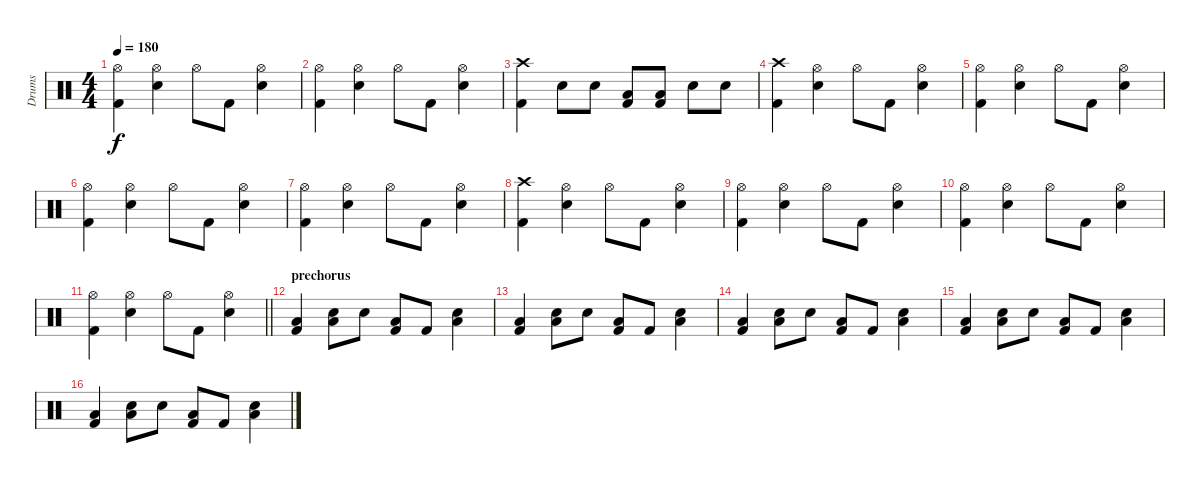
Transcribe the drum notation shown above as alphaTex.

\track ("Drums" "Drums") {instrument percussion}
\staff {score}
\articulation defaults
\ts (4 4)
\tempo 180
\clef neutral
\ks c
("Hi-Hat (open)" "Kick (hit) 2").4{dy f} ("Hi-Hat (open)" "Electric Snare (hit)").4 "Hi-Hat (open)".8 "Kick (hit) 2".8 ("Hi-Hat (open)" "Electric Snare (hit)").4 |
("Hi-Hat (open)" "Kick (hit) 2").4 ("Hi-Hat (open)" "Electric Snare (hit)").4 "Hi-Hat (open)".8 "Kick (hit) 2".8 ("Hi-Hat (open)" "Electric Snare (hit)").4 |
("Crash high (hit)" "Kick (hit) 2").4 "Electric Snare (hit)".8 "Electric Snare (hit)".8 ("Low Tom (hit)" "Kick (hit) 2").8 ("Low Tom (hit)" "Kick (hit) 2").8 "Electric Snare (hit)".8 "Electric Snare (hit)".8 |
("Crash high (hit)" "Kick (hit) 2").4 ("Hi-Hat (open)" "Electric Snare (hit)").4 "Hi-Hat (open)".8 "Kick (hit) 2".8 ("Hi-Hat (open)" "Electric Snare (hit)").4 |
("Hi-Hat (open)" "Kick (hit) 2").4 ("Hi-Hat (open)" "Electric Snare (hit)").4 "Hi-Hat (open)".8 "Kick (hit) 2".8 ("Hi-Hat (open)" "Electric Snare (hit)").4 |
("Hi-Hat (open)" "Kick (hit) 2").4 ("Hi-Hat (open)" "Electric Snare (hit)").4 "Hi-Hat (open)".8 "Kick (hit) 2".8 ("Hi-Hat (open)" "Electric Snare (hit)").4 |
("Hi-Hat (open)" "Kick (hit) 2").4 ("Hi-Hat (open)" "Electric Snare (hit)").4 "Hi-Hat (open)".8 "Kick (hit) 2".8 ("Hi-Hat (open)" "Electric Snare (hit)").4 |
("Crash high (hit)" "Kick (hit) 2").4 ("Hi-Hat (open)" "Electric Snare (hit)").4 "Hi-Hat (open)".8 "Kick (hit) 2".8 ("Hi-Hat (open)" "Electric Snare (hit)").4 |
("Hi-Hat (open)" "Kick (hit) 2").4 ("Hi-Hat (open)" "Electric Snare (hit)").4 "Hi-Hat (open)".8 "Kick (hit) 2".8 ("Hi-Hat (open)" "Electric Snare (hit)").4 |
("Hi-Hat (open)" "Kick (hit) 2").4 ("Hi-Hat (open)" "Electric Snare (hit)").4 "Hi-Hat (open)".8 "Kick (hit) 2".8 ("Hi-Hat (open)" "Electric Snare (hit)").4 |
\barLineRight lightlight
("Hi-Hat (open)" "Kick (hit) 2").4 ("Hi-Hat (open)" "Electric Snare (hit)").4 "Hi-Hat (open)".8 "Kick (hit) 2".8 ("Hi-Hat (open)" "Electric Snare (hit)").4 |
\section ("" "prechorus")
("Low Tom (hit)" "Kick (hit) 2").4 ("Low Tom (hit)" "Electric Snare (hit)").8 "Electric Snare (hit)".8 ("Low Tom (hit)" "Kick (hit) 2").8 "Kick (hit) 2".8 ("Low Tom (hit)" "Electric Snare (hit)").4 |
("Low Tom (hit)" "Kick (hit) 2").4 ("Low Tom (hit)" "Electric Snare (hit)").8 "Electric Snare (hit)".8 ("Low Tom (hit)" "Kick (hit) 2").8 "Kick (hit) 2".8 ("Low Tom (hit)" "Electric Snare (hit)").4 |
("Low Tom (hit)" "Kick (hit) 2").4 ("Low Tom (hit)" "Electric Snare (hit)").8 "Electric Snare (hit)".8 ("Low Tom (hit)" "Kick (hit) 2").8 "Kick (hit) 2".8 ("Low Tom (hit)" "Electric Snare (hit)").4 |
("Low Tom (hit)" "Kick (hit) 2").4 ("Low Tom (hit)" "Electric Snare (hit)").8 "Electric Snare (hit)".8 ("Low Tom (hit)" "Kick (hit) 2").8 "Kick (hit) 2".8 ("Low Tom (hit)" "Electric Snare (hit)").4 |
("Low Tom (hit)" "Kick (hit) 2").4 ("Low Tom (hit)" "Electric Snare (hit)").8 "Electric Snare (hit)".8 ("Low Tom (hit)" "Kick (hit) 2").8 "Kick (hit) 2".8 ("Low Tom (hit)" "Electric Snare (hit)").4
